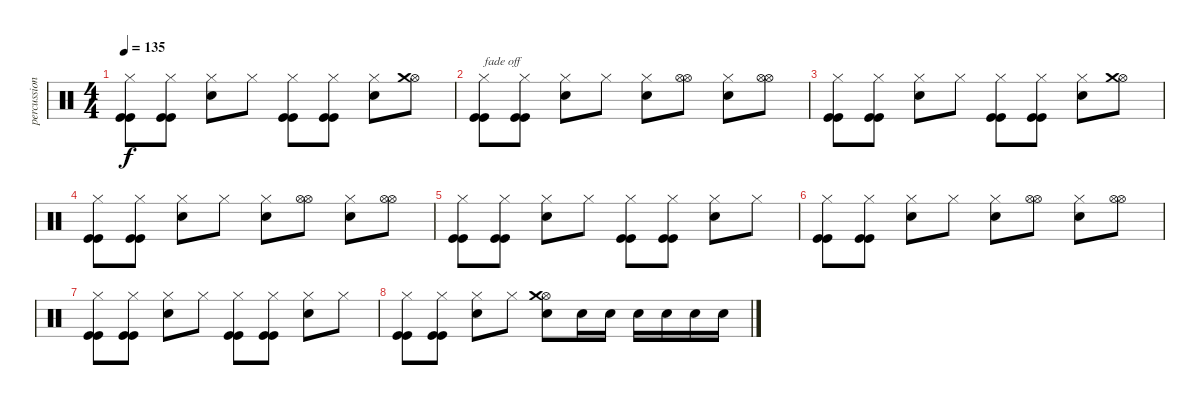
\track ("percussions" "percussion") {instrument percussion}
\staff {score}
\articulation defaults
\ts (4 4)
\tempo 135
\clef neutral
\ks c
("Hi-Hat (closed)" "Kick (hit)" "Kick (hit)").8{dy f} ("Hi-Hat (closed)" "Kick (hit)" "Kick (hit)").8 ("Hi-Hat (closed)" "Electric Snare (hit)").8 "Hi-Hat (closed)".8 ("Hi-Hat (closed)" "Kick (hit)" "Kick (hit)").8 ("Hi-Hat (closed)" "Kick (hit)" "Kick (hit)").8 ("Hi-Hat (closed)" "Electric Snare (hit)").8 ("Hi-Hat (open)" "Crash medium (hit)").8 |
("Hi-Hat (closed)" "Kick (hit)" "Kick (hit)").8{txt "fade off" volume 10} ("Hi-Hat (closed)" "Kick (hit)" "Kick (hit)").8 ("Hi-Hat (closed)" "Electric Snare (hit)").8 "Hi-Hat (closed)".8 ("Hi-Hat (closed)" "Electric Snare (hit)").8 ("Hi-Hat (open)" "Hi-Hat (open)").8 ("Hi-Hat (closed)" "Electric Snare (hit)").8 ("Hi-Hat (open)" "Hi-Hat (open)").8 |
("Hi-Hat (closed)" "Kick (hit)" "Kick (hit)").8 ("Hi-Hat (closed)" "Kick (hit)" "Kick (hit)").8 ("Hi-Hat (closed)" "Electric Snare (hit)").8 "Hi-Hat (closed)".8 ("Hi-Hat (closed)" "Kick (hit)" "Kick (hit)").8 ("Hi-Hat (closed)" "Kick (hit)" "Kick (hit)").8 ("Hi-Hat (closed)" "Electric Snare (hit)").8 ("Hi-Hat (open)" "Crash medium (hit)").8 |
("Hi-Hat (closed)" "Kick (hit)" "Kick (hit)").8{volume 6} ("Hi-Hat (closed)" "Kick (hit)" "Kick (hit)").8 ("Hi-Hat (closed)" "Electric Snare (hit)").8 "Hi-Hat (closed)".8 ("Hi-Hat (closed)" "Electric Snare (hit)").8 ("Hi-Hat (open)" "Hi-Hat (open)").8 ("Hi-Hat (closed)" "Electric Snare (hit)").8 ("Hi-Hat (open)" "Hi-Hat (open)").8 |
("Hi-Hat (closed)" "Kick (hit)" "Kick (hit)").8 ("Hi-Hat (closed)" "Kick (hit)" "Kick (hit)").8 ("Hi-Hat (closed)" "Electric Snare (hit)").8 "Hi-Hat (closed)".8 ("Hi-Hat (closed)" "Kick (hit)" "Kick (hit)").8 ("Hi-Hat (closed)" "Kick (hit)" "Kick (hit)").8 ("Hi-Hat (closed)" "Electric Snare (hit)").8 "Hi-Hat (closed)".8 |
("Hi-Hat (closed)" "Kick (hit)" "Kick (hit)").8{volume 0} ("Hi-Hat (closed)" "Kick (hit)" "Kick (hit)").8 ("Hi-Hat (closed)" "Electric Snare (hit)").8 "Hi-Hat (closed)".8 ("Hi-Hat (closed)" "Electric Snare (hit)").8 ("Hi-Hat (open)" "Hi-Hat (open)").8 ("Hi-Hat (closed)" "Electric Snare (hit)").8 ("Hi-Hat (open)" "Hi-Hat (open)").8 |
("Hi-Hat (closed)" "Kick (hit)" "Kick (hit)").8 ("Hi-Hat (closed)" "Kick (hit)" "Kick (hit)").8 ("Hi-Hat (closed)" "Electric Snare (hit)").8 "Hi-Hat (closed)".8 ("Hi-Hat (closed)" "Kick (hit)" "Kick (hit)").8 ("Hi-Hat (closed)" "Kick (hit)" "Kick (hit)").8 ("Hi-Hat (closed)" "Electric Snare (hit)").8 "Hi-Hat (closed)".8 |
("Hi-Hat (closed)" "Kick (hit)" "Kick (hit)").8 ("Hi-Hat (closed)" "Kick (hit)" "Kick (hit)").8 ("Hi-Hat (closed)" "Electric Snare (hit)").8 "Hi-Hat (closed)".8 ("Hi-Hat (open)" "Crash medium (hit)" "Snare (hit) 2").8 "Electric Snare (hit)".16 "Electric Snare (hit)".16 "Electric Snare (hit)".16 "Electric Snare (hit)".16 "Electric Snare (hit)".16 "Electric Snare (hit)".16
